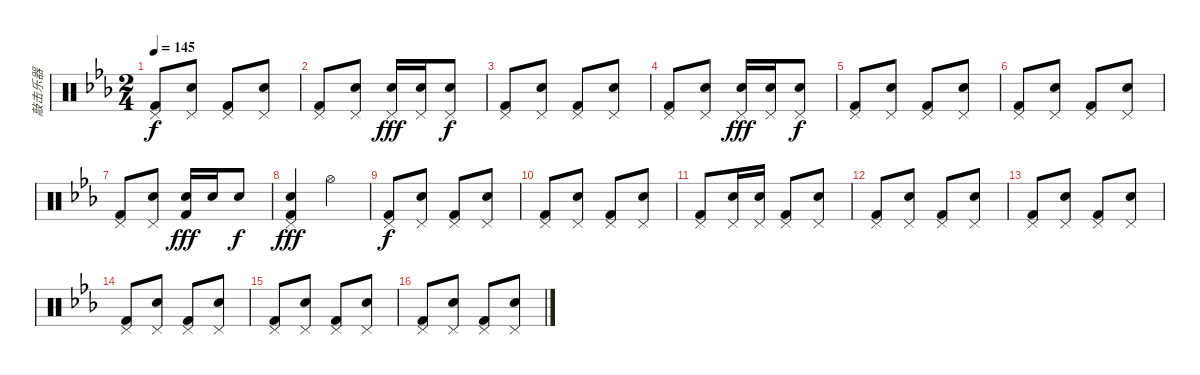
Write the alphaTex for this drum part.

\track ("敲击乐器" "敲击乐器") {instrument percussion}
\staff {score}
\articulation defaults
\ts (2 4)
\tempo 145
\clef neutral
\ks eb
("Pedal Hi-Hat (hit)" "Kick (hit) 2").8{dy f} ("Pedal Hi-Hat (hit)" "Snare (hit) 2").8 ("Pedal Hi-Hat (hit)" "Kick (hit) 2").8 ("Pedal Hi-Hat (hit)" "Snare (hit) 2").8 |
("Pedal Hi-Hat (hit)" "Kick (hit) 2").8 ("Pedal Hi-Hat (hit)" "Snare (hit) 2").8 ("Pedal Hi-Hat (hit)" "Hand Clap (hit)").16{dy fff} ("Pedal Hi-Hat (hit)" "Hand Clap (hit)").16 ("Pedal Hi-Hat (hit)" "Snare (hit) 2").8{dy f} |
("Pedal Hi-Hat (hit)" "Kick (hit) 2").8 ("Pedal Hi-Hat (hit)" "Snare (hit) 2").8 ("Pedal Hi-Hat (hit)" "Kick (hit) 2").8 ("Pedal Hi-Hat (hit)" "Snare (hit) 2").8 |
("Pedal Hi-Hat (hit)" "Kick (hit) 2").8 ("Pedal Hi-Hat (hit)" "Snare (hit) 2").8 ("Pedal Hi-Hat (hit)" "Hand Clap (hit)").16{dy fff} ("Pedal Hi-Hat (hit)" "Hand Clap (hit)").16 ("Pedal Hi-Hat (hit)" "Snare (hit) 2").8{dy f} |
("Pedal Hi-Hat (hit)" "Kick (hit) 2").8 ("Pedal Hi-Hat (hit)" "Snare (hit) 2").8 ("Pedal Hi-Hat (hit)" "Kick (hit) 2").8 ("Pedal Hi-Hat (hit)" "Snare (hit) 2").8 |
("Pedal Hi-Hat (hit)" "Kick (hit) 2").8 ("Pedal Hi-Hat (hit)" "Snare (hit) 2").8 ("Pedal Hi-Hat (hit)" "Kick (hit) 2").8 ("Pedal Hi-Hat (hit)" "Snare (hit) 2").8 |
("Pedal Hi-Hat (hit)" "Kick (hit) 2").8 ("Pedal Hi-Hat (hit)" "Snare (hit) 2").8 ("Snare (hit) 2" "Kick (hit) 2").16{dy fff} "Snare (hit) 2".16 "Snare (hit) 2".8{dy f} |
("Pedal Hi-Hat (hit)" "Snare (hit) 2" "Kick (hit) 2").4{dy fff} "Hi-Hat (open)".4 |
("Pedal Hi-Hat (hit)" "Kick (hit) 2").8{dy f} ("Pedal Hi-Hat (hit)" "Snare (hit) 2").8 ("Pedal Hi-Hat (hit)" "Kick (hit) 2").8 ("Pedal Hi-Hat (hit)" "Snare (hit) 2").8 |
("Pedal Hi-Hat (hit)" "Kick (hit) 2").8 ("Pedal Hi-Hat (hit)" "Snare (hit) 2").8 ("Pedal Hi-Hat (hit)" "Kick (hit) 2").8 ("Pedal Hi-Hat (hit)" "Snare (hit) 2").8 |
("Pedal Hi-Hat (hit)" "Kick (hit) 2").8 ("Pedal Hi-Hat (hit)" "Snare (hit) 2").16 ("Pedal Hi-Hat (hit)" "Snare (hit) 2").16 ("Pedal Hi-Hat (hit)" "Kick (hit) 2").8 ("Pedal Hi-Hat (hit)" "Snare (hit) 2").8 |
("Pedal Hi-Hat (hit)" "Kick (hit) 2").8 ("Pedal Hi-Hat (hit)" "Snare (hit) 2").8 ("Pedal Hi-Hat (hit)" "Kick (hit) 2").8 ("Pedal Hi-Hat (hit)" "Snare (hit) 2").8 |
("Pedal Hi-Hat (hit)" "Kick (hit) 2").8 ("Pedal Hi-Hat (hit)" "Snare (hit) 2").8 ("Pedal Hi-Hat (hit)" "Kick (hit) 2").8 ("Pedal Hi-Hat (hit)" "Snare (hit) 2").8 |
("Pedal Hi-Hat (hit)" "Kick (hit) 2").8 ("Pedal Hi-Hat (hit)" "Snare (hit) 2").8 ("Pedal Hi-Hat (hit)" "Kick (hit) 2").8 ("Pedal Hi-Hat (hit)" "Snare (hit) 2").8 |
("Pedal Hi-Hat (hit)" "Kick (hit) 2").8 ("Pedal Hi-Hat (hit)" "Snare (hit) 2").8 ("Pedal Hi-Hat (hit)" "Kick (hit) 2").8 ("Pedal Hi-Hat (hit)" "Snare (hit) 2").8 |
("Pedal Hi-Hat (hit)" "Kick (hit) 2").8 ("Pedal Hi-Hat (hit)" "Snare (hit) 2").8 ("Pedal Hi-Hat (hit)" "Kick (hit) 2").8 ("Pedal Hi-Hat (hit)" "Snare (hit) 2").8
